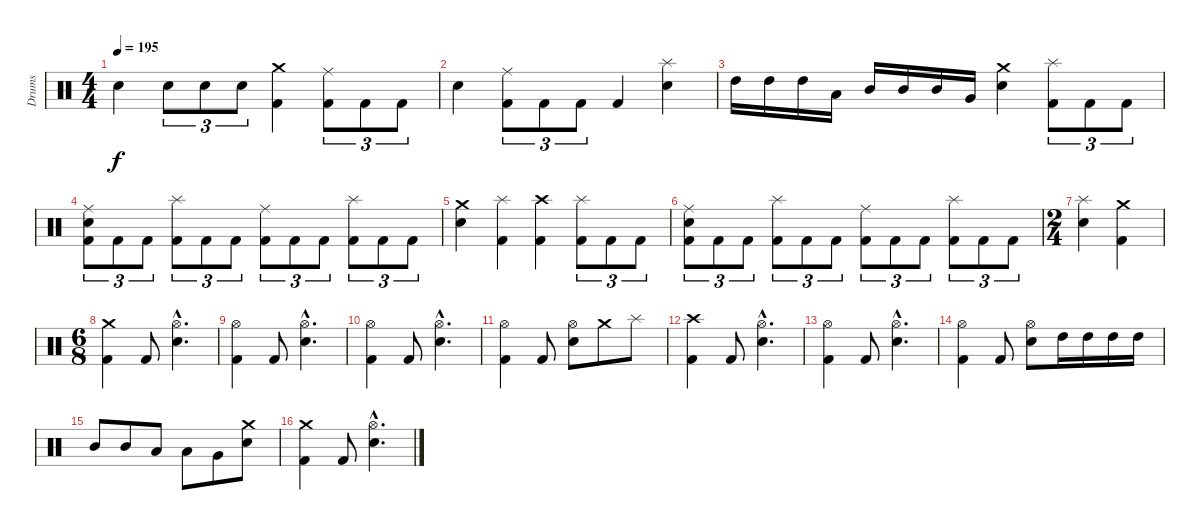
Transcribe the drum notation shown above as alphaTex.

\track ("Drums" "Drums") {instrument percussion}
\staff {score}
\articulation defaults
\ts (4 4)
\tempo 195
\clef neutral
\ks c "Electric Snare (hit)".4{dy f} "Electric Snare (hit)".8{tu (3 2)} "Electric Snare (hit)".8{tu (3 2)} "Electric Snare (hit)".8{tu (3 2)}
("Crash medium (hit)" "Kick (hit) 2").4 ("Ride (middle)" "Kick (hit) 2").8{tu (3 2)} "Kick (hit) 2".8{tu (3 2)} "Kick (hit) 2".8{tu (3 2)} |
"Electric Snare (hit)".4 ("Ride (middle)" "Kick (hit) 2").8{tu (3 2)} "Kick (hit) 2".8{tu (3 2)} "Kick (hit) 2".8{tu (3 2)} "Kick (hit) 2".4 ("Splash (hit)" "Electric Snare (hit)").4 |
"High Tom (hit)".16 "High Tom (hit)".16 "High Tom (hit)".16 "Low Tom (hit)".16 "Mid Tom (hit)".16 "Mid Tom (hit)".16 "Mid Tom (hit)".16 "Very Low Tom (hit)".16 ("Crash medium (hit)" "Electric Snare (hit)").4 ("Splash (hit)" "Kick (hit) 2").8{tu (3 2)} "Kick (hit) 2".8{tu (3 2)} "Kick (hit) 2".8{tu (3 2)} |
("Ride (middle)" "Electric Snare (hit)" "Kick (hit) 2").8{tu (3 2)} "Kick (hit) 2".8{tu (3 2)} "Kick (hit) 2".8{tu (3 2)} ("Splash (hit)" "Kick (hit) 2").8{tu (3 2)} "Kick (hit) 2".8{tu (3 2)} "Kick (hit) 2".8{tu (3 2)} ("Ride (middle)" "Kick (hit) 2").8{tu (3 2)} "Kick (hit) 2".8{tu (3 2)} "Kick (hit) 2".8{tu (3 2)} ("Splash (hit)" "Kick (hit) 2").8{tu (3 2)} "Kick (hit) 2".8{tu (3 2)} "Kick (hit) 2".8{tu (3 2)} |
("Crash medium (hit)" "Electric Snare (hit)").4 ("Splash (hit)" "Kick (hit) 2").4 ("Crash high (hit)" "Kick (hit) 2").4 ("Splash (hit)" "Kick (hit) 2").8{tu (3 2)} "Kick (hit) 2".8{tu (3 2)} "Kick (hit) 2".8{tu (3 2)} |
("Ride (middle)" "Electric Snare (hit)" "Kick (hit) 2").8{tu (3 2)} "Kick (hit) 2".8{tu (3 2)} "Kick (hit) 2".8{tu (3 2)} ("Splash (hit)" "Kick (hit) 2").8{tu (3 2)} "Kick (hit) 2".8{tu (3 2)} "Kick (hit) 2".8{tu (3 2)} ("Ride (middle)" "Kick (hit) 2").8{tu (3 2)} "Kick (hit) 2".8{tu (3 2)} "Kick (hit) 2".8{tu (3 2)} ("Splash (hit)" "Kick (hit) 2").8{tu (3 2)} "Kick (hit) 2".8{tu (3 2)} "Kick (hit) 2".8{tu (3 2)} |
\ts (2 4)
("Splash (hit)" "Electric Snare (hit)").4 ("Crash medium (hit)" "Kick (hit) 2").4 |
\ts (6 8)
("Crash medium (hit)" "Kick (hit) 2").4 "Kick (hit) 2".8 ("Hi-Hat (open)"{hac} "Electric Snare (hit)"{hac}).4{d} |
("Hi-Hat (open)" "Kick (hit) 2").4 "Kick (hit) 2".8 ("Hi-Hat (open)"{hac} "Electric Snare (hit)"{hac}).4{d} |
("Hi-Hat (open)" "Kick (hit) 2").4 "Kick (hit) 2".8 ("Hi-Hat (open)"{hac} "Electric Snare (hit)"{hac}).4{d} |
("Hi-Hat (open)" "Kick (hit) 2").4 "Kick (hit) 2".8 ("Hi-Hat (open)" "Electric Snare (hit)").8 "Crash medium (hit)".8 "Splash (hit)".8 |
("Crash high (hit)" "Kick (hit) 2").4 "Kick (hit) 2".8 ("Hi-Hat (open)"{hac} "Electric Snare (hit)"{hac}).4{d} |
("Hi-Hat (open)" "Kick (hit) 2").4 "Kick (hit) 2".8 ("Hi-Hat (open)"{hac} "Electric Snare (hit)"{hac}).4{d} |
("Hi-Hat (open)" "Kick (hit) 2").4 "Kick (hit) 2".8 ("Hi-Hat (open)" "Electric Snare (hit)").8 "High Tom (hit)".16 "High Tom (hit)".16 "High Tom (hit)".16 "High Tom (hit)".16 |
"Mid Tom (hit)".8 "Mid Tom (hit)".8 "Low Tom (hit)".8 "Low Tom (hit)".8 "Very Low Tom (hit)".8 ("Crash medium (hit)" "Electric Snare (hit)").8 |
("Crash medium (hit)" "Kick (hit) 2").4 "Kick (hit) 2".8 ("Hi-Hat (open)"{hac} "Electric Snare (hit)"{hac}).4{d}
